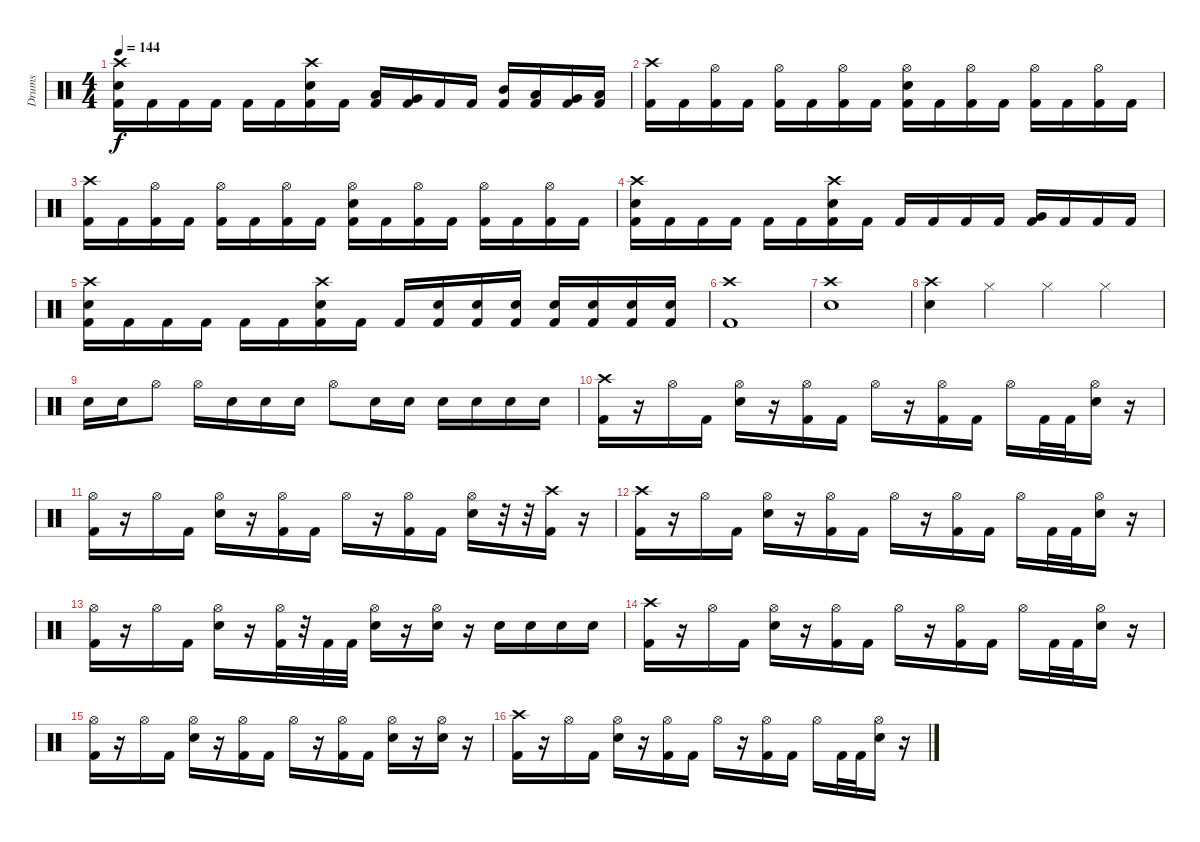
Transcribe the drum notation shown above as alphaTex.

\track ("Drums" "Drums") {instrument percussion}
\staff {score}
\articulation defaults
\ts (4 4)
\tempo 144
\clef neutral
\ks c
("Crash high (hit)" "Snare (hit) 2" "Kick (hit) 2").16{dy f} "Kick (hit) 2".16 "Kick (hit) 2".16 "Kick (hit) 2".16 "Kick (hit) 2".16 "Kick (hit) 2".16 ("Crash high (hit)" "Snare (hit) 2" "Kick (hit) 2").16 "Kick (hit) 2".16 ("Low Tom (hit)" "Kick (hit) 2").16 ("Very Low Tom (hit)" "Kick (hit) 2").16 "Kick (hit) 2".16 "Kick (hit) 2".16 ("Mid Tom (hit)" "Kick (hit) 2").16 ("Low Tom (hit)" "Kick (hit) 2").16 ("Very Low Tom (hit)" "Kick (hit) 2").16 ("Low Floor Tom (hit)" "Kick (hit) 2").16 |
("Crash high (hit)" "Kick (hit) 2").16 "Kick (hit) 2".16 ("Hi-Hat (open)" "Kick (hit) 2").16 "Kick (hit) 2".16 ("Hi-Hat (open)" "Kick (hit) 2").16 "Kick (hit) 2".16 ("Hi-Hat (open)" "Kick (hit) 2").16 "Kick (hit) 2".16 ("Hi-Hat (open)" "Snare (hit) 2" "Kick (hit) 2").16 "Kick (hit) 2".16 ("Hi-Hat (open)" "Kick (hit) 2").16 "Kick (hit) 2".16 ("Hi-Hat (open)" "Kick (hit) 2").16 "Kick (hit) 2".16 ("Hi-Hat (open)" "Kick (hit) 2").16 "Kick (hit) 2".16 |
("Crash high (hit)" "Kick (hit) 2").16 "Kick (hit) 2".16 ("Hi-Hat (open)" "Kick (hit) 2").16 "Kick (hit) 2".16 ("Hi-Hat (open)" "Kick (hit) 2").16 "Kick (hit) 2".16 ("Hi-Hat (open)" "Kick (hit) 2").16 "Kick (hit) 2".16 ("Hi-Hat (open)" "Snare (hit) 2" "Kick (hit) 2").16 "Kick (hit) 2".16 ("Hi-Hat (open)" "Kick (hit) 2").16 "Kick (hit) 2".16 ("Hi-Hat (open)" "Kick (hit) 2").16 "Kick (hit) 2".16 ("Hi-Hat (open)" "Kick (hit) 2").16 "Kick (hit) 2".16 |
("Crash high (hit)" "Snare (hit) 2" "Kick (hit) 2").16 "Kick (hit) 2".16 "Kick (hit) 2".16 "Kick (hit) 2".16 "Kick (hit) 2".16 "Kick (hit) 2".16 ("Crash high (hit)" "Snare (hit) 2" "Kick (hit) 2").16 "Kick (hit) 2".16 "Kick (hit) 2".16 "Kick (hit) 2".16 "Kick (hit) 2".16 "Kick (hit) 2".16 ("Very Low Tom (hit)" "Kick (hit) 2").16 "Kick (hit) 2".16 "Kick (hit) 2".16 "Kick (hit) 2".16 |
("Crash high (hit)" "Snare (hit) 2" "Kick (hit) 2").16 "Kick (hit) 2".16 "Kick (hit) 2".16 "Kick (hit) 2".16 "Kick (hit) 2".16 "Kick (hit) 2".16 ("Crash high (hit)" "Snare (hit) 2" "Kick (hit) 2").16 "Kick (hit) 2".16 "Kick (hit) 2".16 ("Snare (hit) 2" "Kick (hit) 2").16 ("Snare (hit) 2" "Kick (hit) 2").16 ("Snare (hit) 2" "Kick (hit) 2").16 ("Snare (hit) 2" "Kick (hit) 2").16 ("Snare (hit) 2" "Kick (hit) 2").16 ("Snare (hit) 2" "Kick (hit) 2").16 ("Snare (hit) 2" "Kick (hit) 2").16 |
("Crash high (hit)" "Kick (hit) 2").1 |
("Crash high (hit)" "Snare (hit) 2").1 |
("Crash high (hit)" "Snare (hit) 2").4 "Hi-Hat (closed)".4 "Hi-Hat (closed)".4 "Hi-Hat (closed)".4 |
"Snare (hit) 2".16 "Snare (hit) 2".16 "Hi-Hat (open)".8 "Hi-Hat (open)".16 "Snare (hit) 2".16 "Snare (hit) 2".16 "Snare (hit) 2".16 "Hi-Hat (open)".8 "Snare (hit) 2".16 "Snare (hit) 2".16 "Snare (hit) 2".16 "Snare (hit) 2".16 "Snare (hit) 2".16 "Snare (hit) 2".16 |
("Crash high (hit)" "Kick (hit) 2").16 r.16 "Hi-Hat (open)".16 "Kick (hit) 2".16 ("Hi-Hat (open)" "Snare (hit) 2").16 r.16 ("Hi-Hat (open)" "Kick (hit) 2").16 "Kick (hit) 2".16 "Hi-Hat (open)".16 r.16 ("Hi-Hat (open)" "Kick (hit) 2").16 "Kick (hit) 2".16 "Hi-Hat (open)".16 "Kick (hit) 2".32 "Kick (hit) 2".32 ("Hi-Hat (open)" "Snare (hit) 2").16 r.16 |
("Hi-Hat (open)" "Kick (hit) 2").16 r.16 "Hi-Hat (open)".16 "Kick (hit) 2".16 ("Hi-Hat (open)" "Snare (hit) 2").16 r.16 ("Hi-Hat (open)" "Kick (hit) 2").16 "Kick (hit) 2".16 "Hi-Hat (open)".16 r.16 ("Hi-Hat (open)" "Kick (hit) 2").16 "Kick (hit) 2".16 ("Hi-Hat (open)" "Snare (hit) 2").16 r.32 r.32 ("Crash high (hit)" "Kick (hit) 2").16 r.16 |
("Crash high (hit)" "Kick (hit) 2").16 r.16 "Hi-Hat (open)".16 "Kick (hit) 2".16 ("Hi-Hat (open)" "Snare (hit) 2").16 r.16 ("Hi-Hat (open)" "Kick (hit) 2").16 "Kick (hit) 2".16 "Hi-Hat (open)".16 r.16 ("Hi-Hat (open)" "Kick (hit) 2").16 "Kick (hit) 2".16 "Hi-Hat (open)".16 "Kick (hit) 2".32 "Kick (hit) 2".32 ("Hi-Hat (open)" "Snare (hit) 2").16 r.16 |
("Hi-Hat (open)" "Kick (hit) 2").16 r.16 "Hi-Hat (open)".16 "Kick (hit) 2".16 ("Hi-Hat (open)" "Snare (hit) 2").16 r.16 ("Hi-Hat (open)" "Kick (hit) 2").32 r.32 "Kick (hit) 2".32 "Kick (hit) 2".32 ("Hi-Hat (open)" "Snare (hit) 2").16 r.16 ("Hi-Hat (open)" "Snare (hit) 2").16 r.16 "Snare (hit) 2".16 "Snare (hit) 2".16 "Snare (hit) 2".16 "Snare (hit) 2".16 |
("Crash high (hit)" "Kick (hit) 2").16 r.16 "Hi-Hat (open)".16 "Kick (hit) 2".16 ("Hi-Hat (open)" "Snare (hit) 2").16 r.16 ("Hi-Hat (open)" "Kick (hit) 2").16 "Kick (hit) 2".16 "Hi-Hat (open)".16 r.16 ("Hi-Hat (open)" "Kick (hit) 2").16 "Kick (hit) 2".16 "Hi-Hat (open)".16 "Kick (hit) 2".32 "Kick (hit) 2".32 ("Hi-Hat (open)" "Snare (hit) 2").16 r.16 |
("Hi-Hat (open)" "Kick (hit) 2").16 r.16 "Hi-Hat (open)".16 "Kick (hit) 2".16 ("Hi-Hat (open)" "Snare (hit) 2").16 r.16 ("Hi-Hat (open)" "Kick (hit) 2").16 "Kick (hit) 2".16 "Hi-Hat (open)".16 r.16 ("Hi-Hat (open)" "Kick (hit) 2").16 "Kick (hit) 2".16 ("Hi-Hat (open)" "Snare (hit) 2").16 r.16 ("Hi-Hat (open)" "Snare (hit) 2").16 r.16 |
("Crash high (hit)" "Kick (hit) 2").16 r.16 "Hi-Hat (open)".16 "Kick (hit) 2".16 ("Hi-Hat (open)" "Snare (hit) 2").16 r.16 ("Hi-Hat (open)" "Kick (hit) 2").16 "Kick (hit) 2".16 "Hi-Hat (open)".16 r.16 ("Hi-Hat (open)" "Kick (hit) 2").16 "Kick (hit) 2".16 "Hi-Hat (open)".16 "Kick (hit) 2".32 "Kick (hit) 2".32 ("Hi-Hat (open)" "Snare (hit) 2").16 r.16
